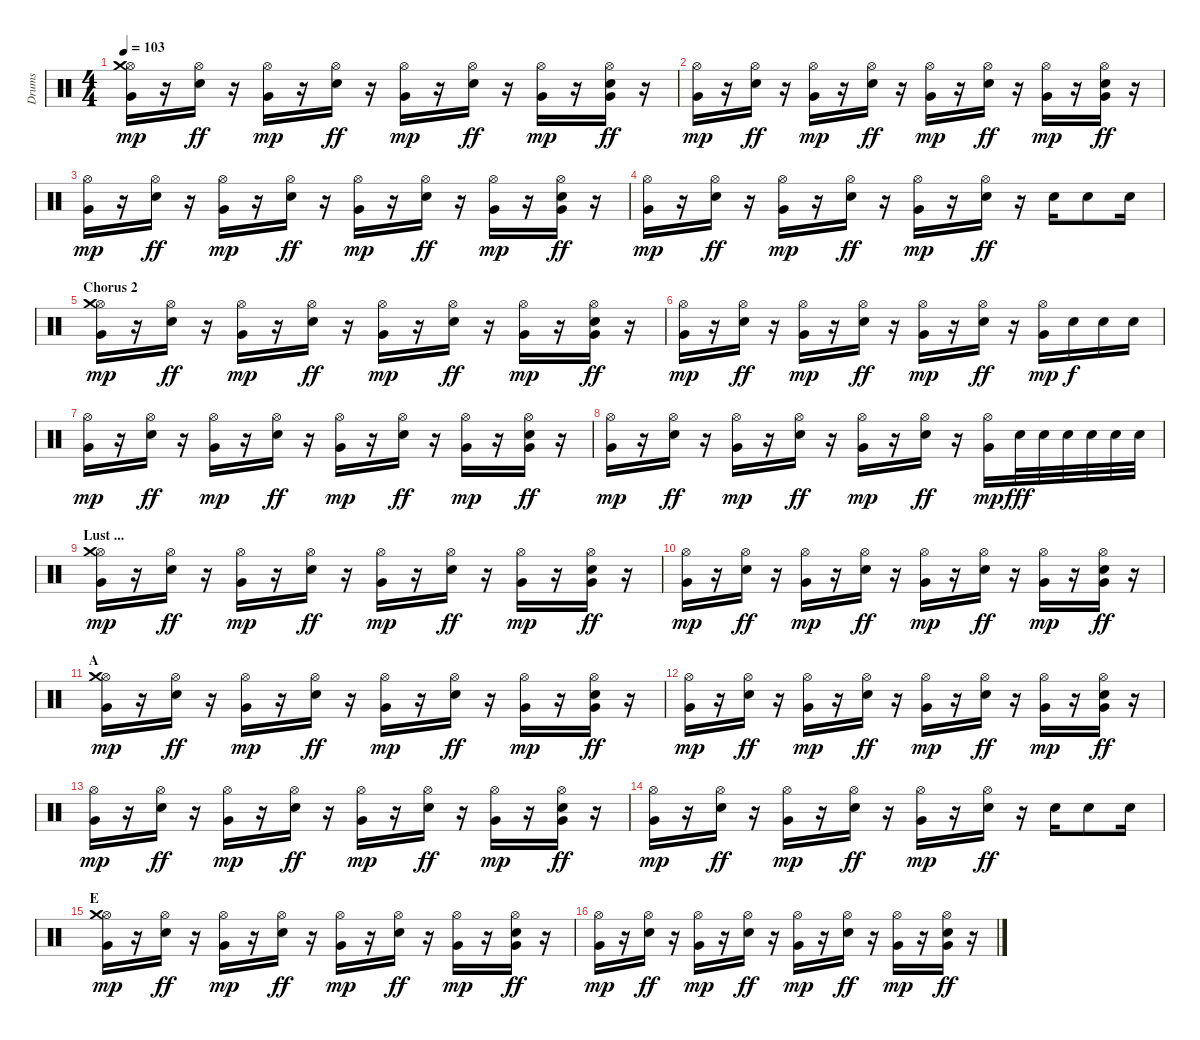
\track ("Drums" "Drums") {instrument percussion}
\staff {score}
\articulation defaults
\ts (4 4)
\tempo 103
\clef neutral
\ks c
("Hi-Hat (open)" "Crash medium (hit)" "Very Low Tom (hit)").16{dy mp} r.16 ("Hi-Hat (open)" "Electric Snare (hit)").16{dy ff} r.16 ("Hi-Hat (open)" "Very Low Tom (hit)").16{dy mp} r.16 ("Hi-Hat (open)" "Electric Snare (hit)").16{dy ff} r.16 ("Hi-Hat (open)" "Very Low Tom (hit)").16{dy mp} r.16 ("Hi-Hat (open)" "Electric Snare (hit)").16{dy ff} r.16 ("Hi-Hat (open)" "Very Low Tom (hit)").16{dy mp} r.16 ("Hi-Hat (open)" "Electric Snare (hit)" "Very Low Tom (hit)").16{dy ff} r.16 |
("Hi-Hat (open)" "Very Low Tom (hit)").16{dy mp} r.16 ("Hi-Hat (open)" "Electric Snare (hit)").16{dy ff} r.16 ("Hi-Hat (open)" "Very Low Tom (hit)").16{dy mp} r.16 ("Hi-Hat (open)" "Electric Snare (hit)").16{dy ff} r.16 ("Hi-Hat (open)" "Very Low Tom (hit)").16{dy mp} r.16 ("Hi-Hat (open)" "Electric Snare (hit)").16{dy ff} r.16 ("Hi-Hat (open)" "Very Low Tom (hit)").16{dy mp} r.16 ("Hi-Hat (open)" "Electric Snare (hit)" "Very Low Tom (hit)").16{dy ff} r.16 |
("Hi-Hat (open)" "Very Low Tom (hit)").16{dy mp} r.16 ("Hi-Hat (open)" "Electric Snare (hit)").16{dy ff} r.16 ("Hi-Hat (open)" "Very Low Tom (hit)").16{dy mp} r.16 ("Hi-Hat (open)" "Electric Snare (hit)").16{dy ff} r.16 ("Hi-Hat (open)" "Very Low Tom (hit)").16{dy mp} r.16 ("Hi-Hat (open)" "Electric Snare (hit)").16{dy ff} r.16 ("Hi-Hat (open)" "Very Low Tom (hit)").16{dy mp} r.16 ("Hi-Hat (open)" "Electric Snare (hit)" "Very Low Tom (hit)").16{dy ff} r.16 |
("Hi-Hat (open)" "Very Low Tom (hit)").16{dy mp} r.16 ("Hi-Hat (open)" "Electric Snare (hit)").16{dy ff} r.16 ("Hi-Hat (open)" "Very Low Tom (hit)").16{dy mp} r.16 ("Hi-Hat (open)" "Electric Snare (hit)").16{dy ff} r.16 ("Hi-Hat (open)" "Very Low Tom (hit)").16{dy mp} r.16 ("Hi-Hat (open)" "Electric Snare (hit)").16{dy ff} r.16 "Electric Snare (hit)".16 "Electric Snare (hit)".8 "Electric Snare (hit)".16 |
\section ("" "Chorus 2")
("Hi-Hat (open)" "Crash medium (hit)" "Very Low Tom (hit)").16{dy mp} r.16 ("Hi-Hat (open)" "Electric Snare (hit)").16{dy ff} r.16 ("Hi-Hat (open)" "Very Low Tom (hit)").16{dy mp} r.16 ("Hi-Hat (open)" "Electric Snare (hit)").16{dy ff} r.16 ("Hi-Hat (open)" "Very Low Tom (hit)").16{dy mp} r.16 ("Hi-Hat (open)" "Electric Snare (hit)").16{dy ff} r.16 ("Hi-Hat (open)" "Very Low Tom (hit)").16{dy mp} r.16 ("Hi-Hat (open)" "Electric Snare (hit)" "Very Low Tom (hit)").16{dy ff} r.16 |
("Hi-Hat (open)" "Very Low Tom (hit)").16{dy mp} r.16 ("Hi-Hat (open)" "Electric Snare (hit)").16{dy ff} r.16 ("Hi-Hat (open)" "Very Low Tom (hit)").16{dy mp} r.16 ("Hi-Hat (open)" "Electric Snare (hit)").16{dy ff} r.16 ("Hi-Hat (open)" "Very Low Tom (hit)").16{dy mp} r.16 ("Hi-Hat (open)" "Electric Snare (hit)").16{dy ff} r.16 ("Hi-Hat (open)" "Very Low Tom (hit)").16{dy mp} "Electric Snare (hit)".16{dy f} "Electric Snare (hit)".16 "Electric Snare (hit)".16 |
("Hi-Hat (open)" "Very Low Tom (hit)").16{dy mp} r.16 ("Hi-Hat (open)" "Electric Snare (hit)").16{dy ff} r.16 ("Hi-Hat (open)" "Very Low Tom (hit)").16{dy mp} r.16 ("Hi-Hat (open)" "Electric Snare (hit)").16{dy ff} r.16 ("Hi-Hat (open)" "Very Low Tom (hit)").16{dy mp} r.16 ("Hi-Hat (open)" "Electric Snare (hit)").16{dy ff} r.16 ("Hi-Hat (open)" "Very Low Tom (hit)").16{dy mp} r.16 ("Hi-Hat (open)" "Electric Snare (hit)" "Very Low Tom (hit)").16{dy ff} r.16 |
("Hi-Hat (open)" "Very Low Tom (hit)").16{dy mp} r.16 ("Hi-Hat (open)" "Electric Snare (hit)").16{dy ff} r.16 ("Hi-Hat (open)" "Very Low Tom (hit)").16{dy mp} r.16 ("Hi-Hat (open)" "Electric Snare (hit)").16{dy ff} r.16 ("Hi-Hat (open)" "Very Low Tom (hit)").16{dy mp} r.16 ("Hi-Hat (open)" "Electric Snare (hit)").16{dy ff} r.16 ("Hi-Hat (open)" "Very Low Tom (hit)").16{dy mp} "Electric Snare (hit)".32{dy fff} "Electric Snare (hit)".32 "Electric Snare (hit)".32 "Electric Snare (hit)".32 "Electric Snare (hit)".32 "Electric Snare (hit)".32 |
\section ("" "Lust ...")
("Hi-Hat (open)" "Crash medium (hit)" "Very Low Tom (hit)").16{dy mp} r.16 ("Hi-Hat (open)" "Electric Snare (hit)").16{dy ff} r.16 ("Hi-Hat (open)" "Very Low Tom (hit)").16{dy mp} r.16 ("Hi-Hat (open)" "Electric Snare (hit)").16{dy ff} r.16 ("Hi-Hat (open)" "Very Low Tom (hit)").16{dy mp} r.16 ("Hi-Hat (open)" "Electric Snare (hit)").16{dy ff} r.16 ("Hi-Hat (open)" "Very Low Tom (hit)").16{dy mp} r.16 ("Hi-Hat (open)" "Electric Snare (hit)" "Very Low Tom (hit)").16{dy ff} r.16 |
("Hi-Hat (open)" "Very Low Tom (hit)").16{dy mp} r.16 ("Hi-Hat (open)" "Electric Snare (hit)").16{dy ff} r.16 ("Hi-Hat (open)" "Very Low Tom (hit)").16{dy mp} r.16 ("Hi-Hat (open)" "Electric Snare (hit)").16{dy ff} r.16 ("Hi-Hat (open)" "Very Low Tom (hit)").16{dy mp} r.16 ("Hi-Hat (open)" "Electric Snare (hit)").16{dy ff} r.16 ("Hi-Hat (open)" "Very Low Tom (hit)").16{dy mp} r.16 ("Hi-Hat (open)" "Electric Snare (hit)" "Very Low Tom (hit)").16{dy ff} r.16 |
\section ("" "A")
("Hi-Hat (open)" "Crash medium (hit)" "Very Low Tom (hit)").16{dy mp} r.16 ("Hi-Hat (open)" "Electric Snare (hit)").16{dy ff} r.16 ("Hi-Hat (open)" "Very Low Tom (hit)").16{dy mp} r.16 ("Hi-Hat (open)" "Electric Snare (hit)").16{dy ff} r.16 ("Hi-Hat (open)" "Very Low Tom (hit)").16{dy mp} r.16 ("Hi-Hat (open)" "Electric Snare (hit)").16{dy ff} r.16 ("Hi-Hat (open)" "Very Low Tom (hit)").16{dy mp} r.16 ("Hi-Hat (open)" "Electric Snare (hit)" "Very Low Tom (hit)").16{dy ff} r.16 |
("Hi-Hat (open)" "Very Low Tom (hit)").16{dy mp} r.16 ("Hi-Hat (open)" "Electric Snare (hit)").16{dy ff} r.16 ("Hi-Hat (open)" "Very Low Tom (hit)").16{dy mp} r.16 ("Hi-Hat (open)" "Electric Snare (hit)").16{dy ff} r.16 ("Hi-Hat (open)" "Very Low Tom (hit)").16{dy mp} r.16 ("Hi-Hat (open)" "Electric Snare (hit)").16{dy ff} r.16 ("Hi-Hat (open)" "Very Low Tom (hit)").16{dy mp} r.16 ("Hi-Hat (open)" "Electric Snare (hit)" "Very Low Tom (hit)").16{dy ff} r.16 |
("Hi-Hat (open)" "Very Low Tom (hit)").16{dy mp} r.16 ("Hi-Hat (open)" "Electric Snare (hit)").16{dy ff} r.16 ("Hi-Hat (open)" "Very Low Tom (hit)").16{dy mp} r.16 ("Hi-Hat (open)" "Electric Snare (hit)").16{dy ff} r.16 ("Hi-Hat (open)" "Very Low Tom (hit)").16{dy mp} r.16 ("Hi-Hat (open)" "Electric Snare (hit)").16{dy ff} r.16 ("Hi-Hat (open)" "Very Low Tom (hit)").16{dy mp} r.16 ("Hi-Hat (open)" "Electric Snare (hit)" "Very Low Tom (hit)").16{dy ff} r.16 |
("Hi-Hat (open)" "Very Low Tom (hit)").16{dy mp} r.16 ("Hi-Hat (open)" "Electric Snare (hit)").16{dy ff} r.16 ("Hi-Hat (open)" "Very Low Tom (hit)").16{dy mp} r.16 ("Hi-Hat (open)" "Electric Snare (hit)").16{dy ff} r.16 ("Hi-Hat (open)" "Very Low Tom (hit)").16{dy mp} r.16 ("Hi-Hat (open)" "Electric Snare (hit)").16{dy ff} r.16 "Electric Snare (hit)".16 "Electric Snare (hit)".8 "Electric Snare (hit)".16 |
\section ("" "E")
("Hi-Hat (open)" "Crash medium (hit)" "Very Low Tom (hit)").16{dy mp} r.16 ("Hi-Hat (open)" "Electric Snare (hit)").16{dy ff} r.16 ("Hi-Hat (open)" "Very Low Tom (hit)").16{dy mp} r.16 ("Hi-Hat (open)" "Electric Snare (hit)").16{dy ff} r.16 ("Hi-Hat (open)" "Very Low Tom (hit)").16{dy mp} r.16 ("Hi-Hat (open)" "Electric Snare (hit)").16{dy ff} r.16 ("Hi-Hat (open)" "Very Low Tom (hit)").16{dy mp} r.16 ("Hi-Hat (open)" "Electric Snare (hit)" "Very Low Tom (hit)").16{dy ff} r.16 |
("Hi-Hat (open)" "Very Low Tom (hit)").16{dy mp} r.16 ("Hi-Hat (open)" "Electric Snare (hit)").16{dy ff} r.16 ("Hi-Hat (open)" "Very Low Tom (hit)").16{dy mp} r.16 ("Hi-Hat (open)" "Electric Snare (hit)").16{dy ff} r.16 ("Hi-Hat (open)" "Very Low Tom (hit)").16{dy mp} r.16 ("Hi-Hat (open)" "Electric Snare (hit)").16{dy ff} r.16 ("Hi-Hat (open)" "Very Low Tom (hit)").16{dy mp} r.16 ("Hi-Hat (open)" "Electric Snare (hit)" "Very Low Tom (hit)").16{dy ff} r.16
